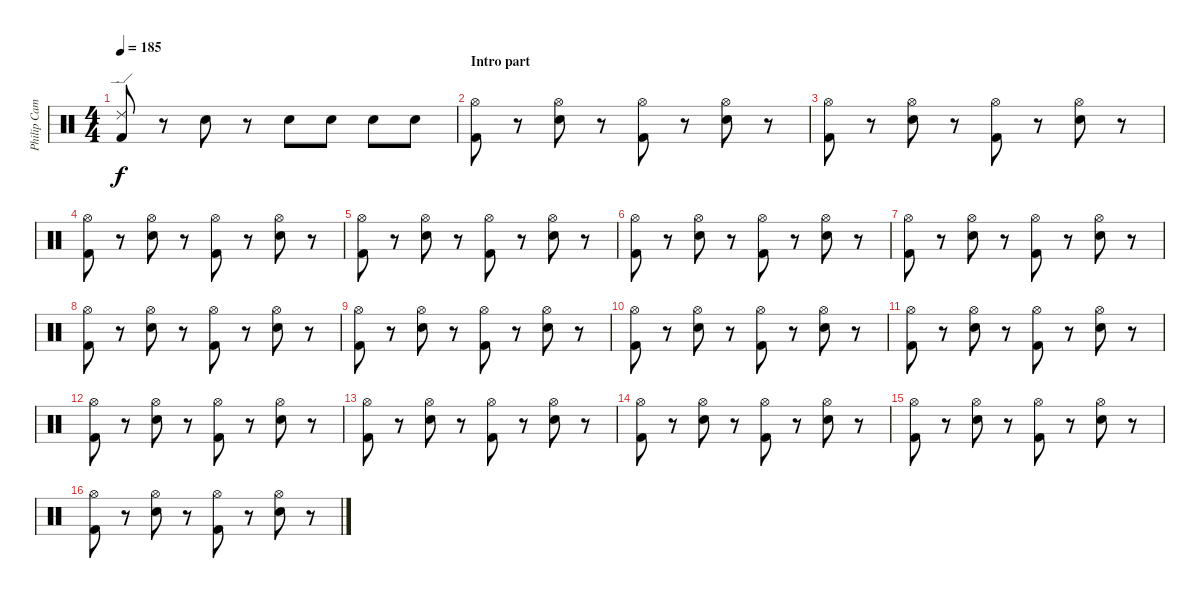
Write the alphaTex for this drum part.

\track ("Philip Campbell" "Philip Cam") {instrument percussion}
\staff {score}
\articulation defaults
\ts (4 4)
\tempo 185
\clef neutral
\ks c
("Ride (edge) 2" "Kick (hit) 2").8{dy f} r.8 "Electric Snare (hit)".8 r.8 "Electric Snare (hit)".8 "Electric Snare (hit)".8 "Electric Snare (hit)".8 "Electric Snare (hit)".8 |
\section ("" "Intro part")
("Hi-Hat (open)" "Kick (hit) 2").8 r.8 ("Hi-Hat (open)" "Electric Snare (hit)").8 r.8 ("Hi-Hat (open)" "Kick (hit) 2").8 r.8 ("Hi-Hat (open)" "Electric Snare (hit)").8 r.8 |
("Hi-Hat (open)" "Kick (hit) 2").8 r.8 ("Hi-Hat (open)" "Electric Snare (hit)").8 r.8 ("Hi-Hat (open)" "Kick (hit) 2").8 r.8 ("Hi-Hat (open)" "Electric Snare (hit)").8 r.8 |
("Hi-Hat (open)" "Kick (hit) 2").8 r.8 ("Hi-Hat (open)" "Electric Snare (hit)").8 r.8 ("Hi-Hat (open)" "Kick (hit) 2").8 r.8 ("Hi-Hat (open)" "Electric Snare (hit)").8 r.8 |
("Hi-Hat (open)" "Kick (hit) 2").8 r.8 ("Hi-Hat (open)" "Electric Snare (hit)").8 r.8 ("Hi-Hat (open)" "Kick (hit) 2").8 r.8 ("Hi-Hat (open)" "Electric Snare (hit)").8 r.8 |
("Hi-Hat (open)" "Kick (hit) 2").8 r.8 ("Hi-Hat (open)" "Electric Snare (hit)").8 r.8 ("Hi-Hat (open)" "Kick (hit) 2").8 r.8 ("Hi-Hat (open)" "Electric Snare (hit)").8 r.8 |
("Hi-Hat (open)" "Kick (hit) 2").8 r.8 ("Hi-Hat (open)" "Electric Snare (hit)").8 r.8 ("Hi-Hat (open)" "Kick (hit) 2").8 r.8 ("Hi-Hat (open)" "Electric Snare (hit)").8 r.8 |
("Hi-Hat (open)" "Kick (hit) 2").8 r.8 ("Hi-Hat (open)" "Electric Snare (hit)").8 r.8 ("Hi-Hat (open)" "Kick (hit) 2").8 r.8 ("Hi-Hat (open)" "Electric Snare (hit)").8 r.8 |
("Hi-Hat (open)" "Kick (hit) 2").8 r.8 ("Hi-Hat (open)" "Electric Snare (hit)").8 r.8 ("Hi-Hat (open)" "Kick (hit) 2").8 r.8 ("Hi-Hat (open)" "Electric Snare (hit)").8 r.8 |
("Hi-Hat (open)" "Kick (hit) 2").8 r.8 ("Hi-Hat (open)" "Electric Snare (hit)").8 r.8 ("Hi-Hat (open)" "Kick (hit) 2").8 r.8 ("Hi-Hat (open)" "Electric Snare (hit)").8 r.8 |
("Hi-Hat (open)" "Kick (hit) 2").8 r.8 ("Hi-Hat (open)" "Electric Snare (hit)").8 r.8 ("Hi-Hat (open)" "Kick (hit) 2").8 r.8 ("Hi-Hat (open)" "Electric Snare (hit)").8 r.8 |
("Hi-Hat (open)" "Kick (hit) 2").8 r.8 ("Hi-Hat (open)" "Electric Snare (hit)").8 r.8 ("Hi-Hat (open)" "Kick (hit) 2").8 r.8 ("Hi-Hat (open)" "Electric Snare (hit)").8 r.8 |
("Hi-Hat (open)" "Kick (hit) 2").8 r.8 ("Hi-Hat (open)" "Electric Snare (hit)").8 r.8 ("Hi-Hat (open)" "Kick (hit) 2").8 r.8 ("Hi-Hat (open)" "Electric Snare (hit)").8 r.8 |
("Hi-Hat (open)" "Kick (hit) 2").8 r.8 ("Hi-Hat (open)" "Electric Snare (hit)").8 r.8 ("Hi-Hat (open)" "Kick (hit) 2").8 r.8 ("Hi-Hat (open)" "Electric Snare (hit)").8 r.8 |
("Hi-Hat (open)" "Kick (hit) 2").8 r.8 ("Hi-Hat (open)" "Electric Snare (hit)").8 r.8 ("Hi-Hat (open)" "Kick (hit) 2").8 r.8 ("Hi-Hat (open)" "Electric Snare (hit)").8 r.8 |
("Hi-Hat (open)" "Kick (hit) 2").8 r.8 ("Hi-Hat (open)" "Electric Snare (hit)").8 r.8 ("Hi-Hat (open)" "Kick (hit) 2").8 r.8 ("Hi-Hat (open)" "Electric Snare (hit)").8 r.8
